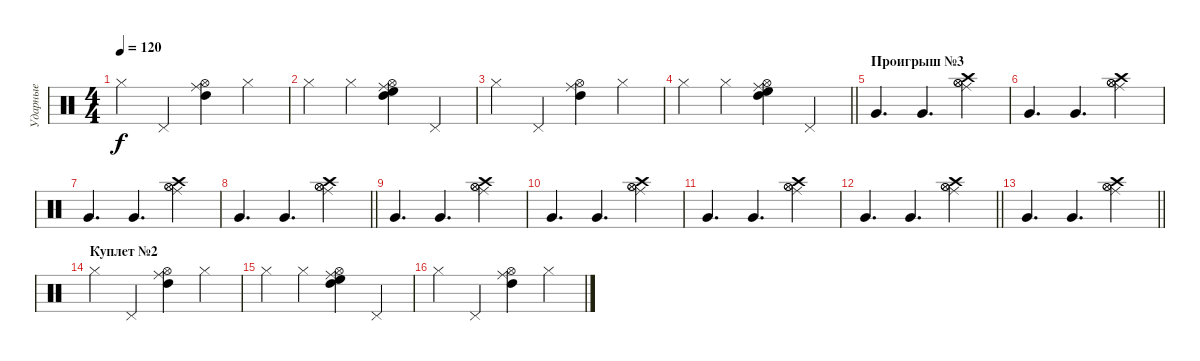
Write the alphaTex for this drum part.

\track ("Ударные" "Ударные") {instrument percussion}
\staff {score}
\articulation defaults
\ts (4 4)
\tempo 120
\clef neutral
\ks c "Hi-Hat (closed)".4{dy f} "Pedal Hi-Hat (hit)".4
("Hi-Hat (open)" "High Tom (hit)" "Ride (middle)").4 "Hi-Hat (closed)".4 |
"Hi-Hat (closed)".4 "Hi-Hat (closed)".4 ("Ride (middle)" "Hi-Hat (open)" "High Tom (hit)" "High Floor Tom (hit)").4 "Pedal Hi-Hat (hit)".4 |
"Hi-Hat (closed)".4 "Pedal Hi-Hat (hit)".4 ("Hi-Hat (open)" "High Tom (hit)" "Ride (middle)").4 "Hi-Hat (closed)".4 |
\barLineRight lightlight "Hi-Hat (closed)".4 "Hi-Hat (closed)".4
("Ride (middle)" "Hi-Hat (open)" "High Tom (hit)" "High Floor Tom (hit)").4 "Pedal Hi-Hat (hit)".4 |
\section ("" "Проигрыш №3")
"Very Low Tom (hit)".4{d} "Very Low Tom (hit)".4{d} ("Hi-Hat (open)" "Hi-Hat (open)" "Ride (middle)" "Crash high (hit)").4 |
"Very Low Tom (hit)".4{d} "Very Low Tom (hit)".4{d} ("Hi-Hat (open)" "Hi-Hat (open)" "Ride (middle)" "Crash high (hit)").4 |
"Very Low Tom (hit)".4{d} "Very Low Tom (hit)".4{d} ("Hi-Hat (open)" "Hi-Hat (open)" "Ride (middle)" "Crash high (hit)").4 |
\barLineRight lightlight "Very Low Tom (hit)".4{d} "Very Low Tom (hit)".4{d}
("Hi-Hat (open)" "Hi-Hat (open)" "Ride (middle)" "Crash high (hit)").4 |
"Very Low Tom (hit)".4{d} "Very Low Tom (hit)".4{d} ("Hi-Hat (open)" "Hi-Hat (open)" "Ride (middle)" "Crash high (hit)").4 |
"Very Low Tom (hit)".4{d} "Very Low Tom (hit)".4{d} ("Hi-Hat (open)" "Hi-Hat (open)" "Ride (middle)" "Crash high (hit)").4 |
"Very Low Tom (hit)".4{d} "Very Low Tom (hit)".4{d} ("Hi-Hat (open)" "Hi-Hat (open)" "Ride (middle)" "Crash high (hit)").4 |
\barLineRight lightlight "Very Low Tom (hit)".4{d} "Very Low Tom (hit)".4{d}
("Hi-Hat (open)" "Hi-Hat (open)" "Ride (middle)" "Crash high (hit)").4 |
\barLineRight lightlight "Very Low Tom (hit)".4{d} "Very Low Tom (hit)".4{d}
("Hi-Hat (open)" "Hi-Hat (open)" "Ride (middle)" "Crash high (hit)").4 |
\section ("" "Куплет №2")
"Hi-Hat (closed)".4 "Pedal Hi-Hat (hit)".4 ("Hi-Hat (open)" "High Tom (hit)" "Ride (middle)").4 "Hi-Hat (closed)".4 |
"Hi-Hat (closed)".4 "Hi-Hat (closed)".4 ("Ride (middle)" "Hi-Hat (open)" "High Tom (hit)" "High Floor Tom (hit)").4 "Pedal Hi-Hat (hit)".4 |
"Hi-Hat (closed)".4 "Pedal Hi-Hat (hit)".4 ("Hi-Hat (open)" "High Tom (hit)" "Ride (middle)").4 "Hi-Hat (closed)".4
